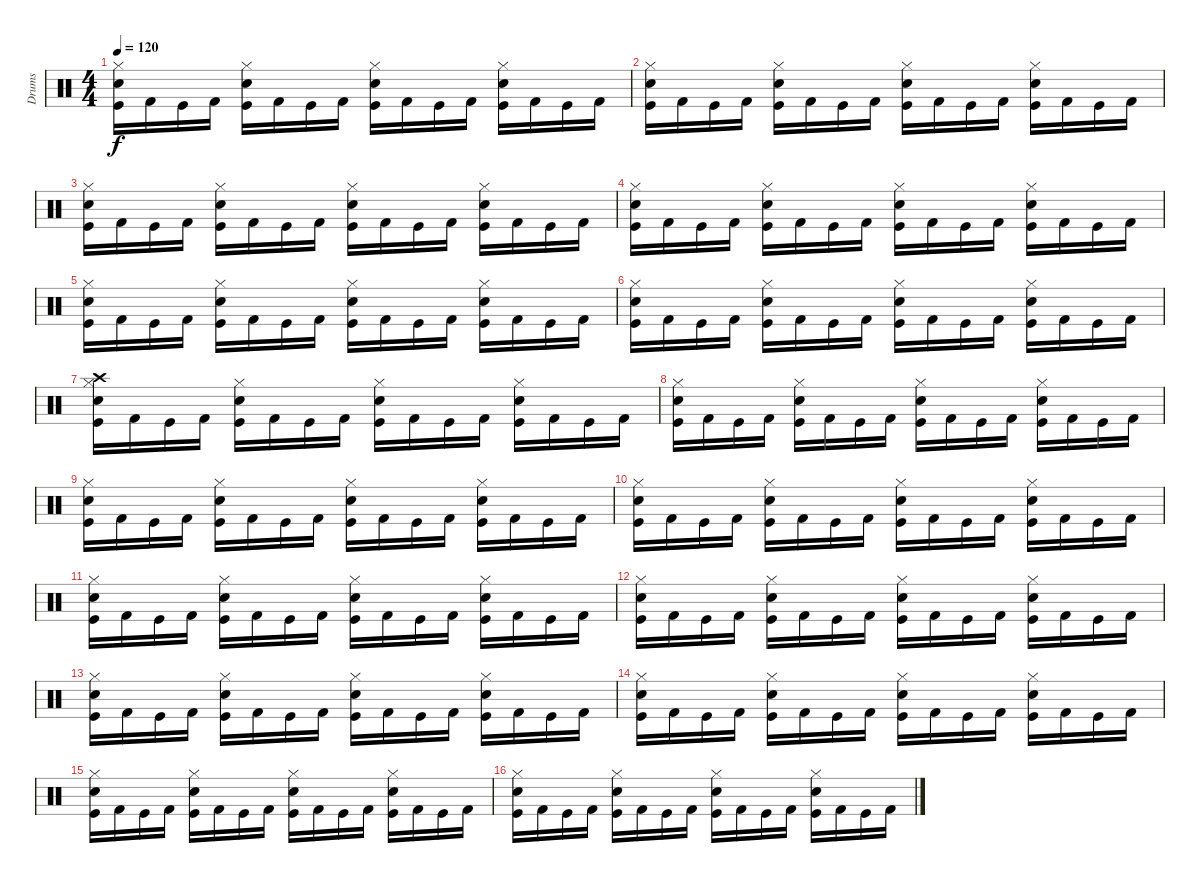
\track ("Drums" "Drums") {instrument percussion}
\staff {score}
\articulation defaults
\ts (4 4)
\tempo 120
\clef neutral
\ks c
("Hi-Hat (closed)" "Snare (hit) 2" "Kick (hit)").16{dy f} "Kick (hit) 2".16 "Kick (hit)".16 "Kick (hit) 2".16 ("Hi-Hat (closed)" "Snare (hit) 2" "Kick (hit)").16 "Kick (hit) 2".16 "Kick (hit)".16 "Kick (hit) 2".16 ("Hi-Hat (closed)" "Snare (hit) 2" "Kick (hit)").16 "Kick (hit) 2".16 "Kick (hit)".16 "Kick (hit) 2".16 ("Hi-Hat (closed)" "Snare (hit) 2" "Kick (hit)").16 "Kick (hit) 2".16 "Kick (hit)".16 "Kick (hit) 2".16 |
("Hi-Hat (closed)" "Snare (hit) 2" "Kick (hit)").16 "Kick (hit) 2".16 "Kick (hit)".16 "Kick (hit) 2".16 ("Hi-Hat (closed)" "Snare (hit) 2" "Kick (hit)").16 "Kick (hit) 2".16 "Kick (hit)".16 "Kick (hit) 2".16 ("Hi-Hat (closed)" "Snare (hit) 2" "Kick (hit)").16 "Kick (hit) 2".16 "Kick (hit)".16 "Kick (hit) 2".16 ("Hi-Hat (closed)" "Snare (hit) 2" "Kick (hit)").16 "Kick (hit) 2".16 "Kick (hit)".16 "Kick (hit) 2".16 |
("Hi-Hat (closed)" "Snare (hit) 2" "Kick (hit)").16 "Kick (hit) 2".16 "Kick (hit)".16 "Kick (hit) 2".16 ("Hi-Hat (closed)" "Snare (hit) 2" "Kick (hit)").16 "Kick (hit) 2".16 "Kick (hit)".16 "Kick (hit) 2".16 ("Hi-Hat (closed)" "Snare (hit) 2" "Kick (hit)").16 "Kick (hit) 2".16 "Kick (hit)".16 "Kick (hit) 2".16 ("Hi-Hat (closed)" "Snare (hit) 2" "Kick (hit)").16 "Kick (hit) 2".16 "Kick (hit)".16 "Kick (hit) 2".16 |
("Hi-Hat (closed)" "Snare (hit) 2" "Kick (hit)").16 "Kick (hit) 2".16 "Kick (hit)".16 "Kick (hit) 2".16 ("Hi-Hat (closed)" "Snare (hit) 2" "Kick (hit)").16 "Kick (hit) 2".16 "Kick (hit)".16 "Kick (hit) 2".16 ("Hi-Hat (closed)" "Snare (hit) 2" "Kick (hit)").16 "Kick (hit) 2".16 "Kick (hit)".16 "Kick (hit) 2".16 ("Hi-Hat (closed)" "Snare (hit) 2" "Kick (hit)").16 "Kick (hit) 2".16 "Kick (hit)".16 "Kick (hit) 2".16 |
("Hi-Hat (closed)" "Snare (hit) 2" "Kick (hit)").16 "Kick (hit) 2".16 "Kick (hit)".16 "Kick (hit) 2".16 ("Hi-Hat (closed)" "Snare (hit) 2" "Kick (hit)").16 "Kick (hit) 2".16 "Kick (hit)".16 "Kick (hit) 2".16 ("Hi-Hat (closed)" "Snare (hit) 2" "Kick (hit)").16 "Kick (hit) 2".16 "Kick (hit)".16 "Kick (hit) 2".16 ("Hi-Hat (closed)" "Snare (hit) 2" "Kick (hit)").16 "Kick (hit) 2".16 "Kick (hit)".16 "Kick (hit) 2".16 |
("Hi-Hat (closed)" "Snare (hit) 2" "Kick (hit)").16 "Kick (hit) 2".16 "Kick (hit)".16 "Kick (hit) 2".16 ("Hi-Hat (closed)" "Snare (hit) 2" "Kick (hit)").16 "Kick (hit) 2".16 "Kick (hit)".16 "Kick (hit) 2".16 ("Hi-Hat (closed)" "Snare (hit) 2" "Kick (hit)").16 "Kick (hit) 2".16 "Kick (hit)".16 "Kick (hit) 2".16 ("Hi-Hat (closed)" "Snare (hit) 2" "Kick (hit)").16 "Kick (hit) 2".16 "Kick (hit)".16 "Kick (hit) 2".16 |
("Hi-Hat (closed)" "Crash high (hit)" "Snare (hit) 2" "Kick (hit)").16 "Kick (hit) 2".16 "Kick (hit)".16 "Kick (hit) 2".16 ("Hi-Hat (closed)" "Snare (hit) 2" "Kick (hit)").16 "Kick (hit) 2".16 "Kick (hit)".16 "Kick (hit) 2".16 ("Hi-Hat (closed)" "Snare (hit) 2" "Kick (hit)").16 "Kick (hit) 2".16 "Kick (hit)".16 "Kick (hit) 2".16 ("Hi-Hat (closed)" "Snare (hit) 2" "Kick (hit)").16 "Kick (hit) 2".16 "Kick (hit)".16 "Kick (hit) 2".16 |
("Hi-Hat (closed)" "Snare (hit) 2" "Kick (hit)").16 "Kick (hit) 2".16 "Kick (hit)".16 "Kick (hit) 2".16 ("Hi-Hat (closed)" "Snare (hit) 2" "Kick (hit)").16 "Kick (hit) 2".16 "Kick (hit)".16 "Kick (hit) 2".16 ("Hi-Hat (closed)" "Snare (hit) 2" "Kick (hit)").16 "Kick (hit) 2".16 "Kick (hit)".16 "Kick (hit) 2".16 ("Hi-Hat (closed)" "Snare (hit) 2" "Kick (hit)").16 "Kick (hit) 2".16 "Kick (hit)".16 "Kick (hit) 2".16 |
("Hi-Hat (closed)" "Snare (hit) 2" "Kick (hit)").16 "Kick (hit) 2".16 "Kick (hit)".16 "Kick (hit) 2".16 ("Hi-Hat (closed)" "Snare (hit) 2" "Kick (hit)").16 "Kick (hit) 2".16 "Kick (hit)".16 "Kick (hit) 2".16 ("Hi-Hat (closed)" "Snare (hit) 2" "Kick (hit)").16 "Kick (hit) 2".16 "Kick (hit)".16 "Kick (hit) 2".16 ("Hi-Hat (closed)" "Snare (hit) 2" "Kick (hit)").16 "Kick (hit) 2".16 "Kick (hit)".16 "Kick (hit) 2".16 |
("Hi-Hat (closed)" "Snare (hit) 2" "Kick (hit)").16 "Kick (hit) 2".16 "Kick (hit)".16 "Kick (hit) 2".16 ("Hi-Hat (closed)" "Snare (hit) 2" "Kick (hit)").16 "Kick (hit) 2".16 "Kick (hit)".16 "Kick (hit) 2".16 ("Hi-Hat (closed)" "Snare (hit) 2" "Kick (hit)").16 "Kick (hit) 2".16 "Kick (hit)".16 "Kick (hit) 2".16 ("Hi-Hat (closed)" "Snare (hit) 2" "Kick (hit)").16 "Kick (hit) 2".16 "Kick (hit)".16 "Kick (hit) 2".16 |
("Hi-Hat (closed)" "Snare (hit) 2" "Kick (hit)").16 "Kick (hit) 2".16 "Kick (hit)".16 "Kick (hit) 2".16 ("Hi-Hat (closed)" "Snare (hit) 2" "Kick (hit)").16 "Kick (hit) 2".16 "Kick (hit)".16 "Kick (hit) 2".16 ("Hi-Hat (closed)" "Snare (hit) 2" "Kick (hit)").16 "Kick (hit) 2".16 "Kick (hit)".16 "Kick (hit) 2".16 ("Hi-Hat (closed)" "Snare (hit) 2" "Kick (hit)").16 "Kick (hit) 2".16 "Kick (hit)".16 "Kick (hit) 2".16 |
("Hi-Hat (closed)" "Snare (hit) 2" "Kick (hit)").16 "Kick (hit) 2".16 "Kick (hit)".16 "Kick (hit) 2".16 ("Hi-Hat (closed)" "Snare (hit) 2" "Kick (hit)").16 "Kick (hit) 2".16 "Kick (hit)".16 "Kick (hit) 2".16 ("Hi-Hat (closed)" "Snare (hit) 2" "Kick (hit)").16 "Kick (hit) 2".16 "Kick (hit)".16 "Kick (hit) 2".16 ("Hi-Hat (closed)" "Snare (hit) 2" "Kick (hit)").16 "Kick (hit) 2".16 "Kick (hit)".16 "Kick (hit) 2".16 |
("Hi-Hat (closed)" "Snare (hit) 2" "Kick (hit)").16 "Kick (hit) 2".16 "Kick (hit)".16 "Kick (hit) 2".16 ("Hi-Hat (closed)" "Snare (hit) 2" "Kick (hit)").16 "Kick (hit) 2".16 "Kick (hit)".16 "Kick (hit) 2".16 ("Hi-Hat (closed)" "Snare (hit) 2" "Kick (hit)").16 "Kick (hit) 2".16 "Kick (hit)".16 "Kick (hit) 2".16 ("Hi-Hat (closed)" "Snare (hit) 2" "Kick (hit)").16 "Kick (hit) 2".16 "Kick (hit)".16 "Kick (hit) 2".16 |
("Hi-Hat (closed)" "Snare (hit) 2" "Kick (hit)").16 "Kick (hit) 2".16 "Kick (hit)".16 "Kick (hit) 2".16 ("Hi-Hat (closed)" "Snare (hit) 2" "Kick (hit)").16 "Kick (hit) 2".16 "Kick (hit)".16 "Kick (hit) 2".16 ("Hi-Hat (closed)" "Snare (hit) 2" "Kick (hit)").16 "Kick (hit) 2".16 "Kick (hit)".16 "Kick (hit) 2".16 ("Hi-Hat (closed)" "Snare (hit) 2" "Kick (hit)").16 "Kick (hit) 2".16 "Kick (hit)".16 "Kick (hit) 2".16 |
("Hi-Hat (closed)" "Snare (hit) 2" "Kick (hit)").16 "Kick (hit) 2".16 "Kick (hit)".16 "Kick (hit) 2".16 ("Hi-Hat (closed)" "Snare (hit) 2" "Kick (hit)").16 "Kick (hit) 2".16 "Kick (hit)".16 "Kick (hit) 2".16 ("Hi-Hat (closed)" "Snare (hit) 2" "Kick (hit)").16 "Kick (hit) 2".16 "Kick (hit)".16 "Kick (hit) 2".16 ("Hi-Hat (closed)" "Snare (hit) 2" "Kick (hit)").16 "Kick (hit) 2".16 "Kick (hit)".16 "Kick (hit) 2".16 |
("Hi-Hat (closed)" "Snare (hit) 2" "Kick (hit)").16 "Kick (hit) 2".16 "Kick (hit)".16 "Kick (hit) 2".16 ("Hi-Hat (closed)" "Snare (hit) 2" "Kick (hit)").16 "Kick (hit) 2".16 "Kick (hit)".16 "Kick (hit) 2".16 ("Hi-Hat (closed)" "Snare (hit) 2" "Kick (hit)").16 "Kick (hit) 2".16 "Kick (hit)".16 "Kick (hit) 2".16 ("Hi-Hat (closed)" "Snare (hit) 2" "Kick (hit)").16 "Kick (hit) 2".16 "Kick (hit)".16 "Kick (hit) 2".16
